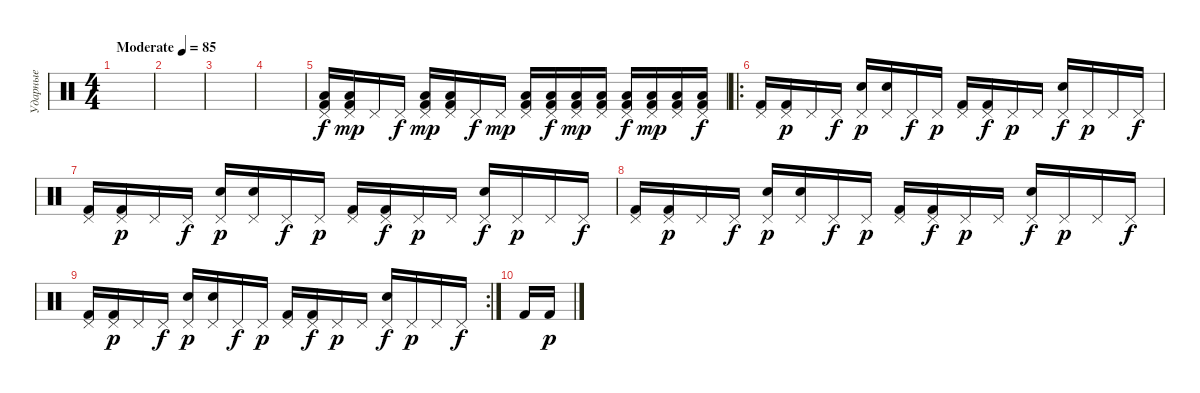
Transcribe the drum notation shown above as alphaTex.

\track ("Ударные" "Ударные") {instrument percussion}
\staff {score}
\articulation defaults
\ts (4 4)
\tempo (85 "Moderate")
\clef neutral
\ks c
|
|
|
|
("Pedal Hi-Hat (hit)" "Kick (hit) 2" "Low Floor Tom (hit)").16 ("Pedal Hi-Hat (hit)" "Kick (hit) 2" "Low Floor Tom (hit)").16{dy mp} "Pedal Hi-Hat (hit)".16 "Pedal Hi-Hat (hit)".16{dy f} ("Pedal Hi-Hat (hit)" "Kick (hit) 2" "Low Floor Tom (hit)").16{dy mp} ("Pedal Hi-Hat (hit)" "Kick (hit) 2" "Low Floor Tom (hit)").16 "Pedal Hi-Hat (hit)".16{dy f} "Pedal Hi-Hat (hit)".16{dy mp} ("Pedal Hi-Hat (hit)" "Kick (hit) 2" "Low Floor Tom (hit)").16 ("Pedal Hi-Hat (hit)" "Kick (hit) 2" "Low Floor Tom (hit)").16{dy f} ("Pedal Hi-Hat (hit)" "Kick (hit) 2" "Low Floor Tom (hit)").16{dy mp} ("Pedal Hi-Hat (hit)" "Kick (hit) 2" "Low Floor Tom (hit)").16 ("Pedal Hi-Hat (hit)" "Kick (hit) 2" "Low Floor Tom (hit)").16{dy f} ("Pedal Hi-Hat (hit)" "Kick (hit) 2" "Low Floor Tom (hit)").16{dy mp} ("Pedal Hi-Hat (hit)" "Kick (hit) 2" "Low Floor Tom (hit)").16 ("Pedal Hi-Hat (hit)" "Kick (hit) 2" "Low Floor Tom (hit)").16{dy f} |
\ro
("Pedal Hi-Hat (hit)" "Kick (hit) 2").16 ("Pedal Hi-Hat (hit)" "Kick (hit) 2").16{dy p} "Pedal Hi-Hat (hit)".16 "Pedal Hi-Hat (hit)".16{dy f} ("Pedal Hi-Hat (hit)" "Electric Snare (hit)").16{dy p} ("Pedal Hi-Hat (hit)" "Electric Snare (hit)").16 "Pedal Hi-Hat (hit)".16{dy f} "Pedal Hi-Hat (hit)".16{dy p} ("Pedal Hi-Hat (hit)" "Kick (hit) 2").16 ("Pedal Hi-Hat (hit)" "Kick (hit) 2").16{dy f} "Pedal Hi-Hat (hit)".16{dy p} "Pedal Hi-Hat (hit)".16 ("Pedal Hi-Hat (hit)" "Electric Snare (hit)").16{dy f} "Pedal Hi-Hat (hit)".16{dy p} "Pedal Hi-Hat (hit)".16 "Pedal Hi-Hat (hit)".16{dy f} |
("Pedal Hi-Hat (hit)" "Kick (hit) 2").16 ("Pedal Hi-Hat (hit)" "Kick (hit) 2").16{dy p} "Pedal Hi-Hat (hit)".16 "Pedal Hi-Hat (hit)".16{dy f} ("Pedal Hi-Hat (hit)" "Electric Snare (hit)").16{dy p} ("Pedal Hi-Hat (hit)" "Electric Snare (hit)").16 "Pedal Hi-Hat (hit)".16{dy f} "Pedal Hi-Hat (hit)".16{dy p} ("Pedal Hi-Hat (hit)" "Kick (hit) 2").16 ("Pedal Hi-Hat (hit)" "Kick (hit) 2").16{dy f} "Pedal Hi-Hat (hit)".16{dy p} "Pedal Hi-Hat (hit)".16 ("Pedal Hi-Hat (hit)" "Electric Snare (hit)").16{dy f} "Pedal Hi-Hat (hit)".16{dy p} "Pedal Hi-Hat (hit)".16 "Pedal Hi-Hat (hit)".16{dy f} |
("Pedal Hi-Hat (hit)" "Kick (hit) 2").16 ("Pedal Hi-Hat (hit)" "Kick (hit) 2").16{dy p} "Pedal Hi-Hat (hit)".16 "Pedal Hi-Hat (hit)".16{dy f} ("Pedal Hi-Hat (hit)" "Electric Snare (hit)").16{dy p} ("Pedal Hi-Hat (hit)" "Electric Snare (hit)").16 "Pedal Hi-Hat (hit)".16{dy f} "Pedal Hi-Hat (hit)".16{dy p} ("Pedal Hi-Hat (hit)" "Kick (hit) 2").16 ("Pedal Hi-Hat (hit)" "Kick (hit) 2").16{dy f} "Pedal Hi-Hat (hit)".16{dy p} "Pedal Hi-Hat (hit)".16 ("Pedal Hi-Hat (hit)" "Electric Snare (hit)").16{dy f} "Pedal Hi-Hat (hit)".16{dy p} "Pedal Hi-Hat (hit)".16 "Pedal Hi-Hat (hit)".16{dy f} |
\rc 2
("Pedal Hi-Hat (hit)" "Kick (hit) 2").16 ("Pedal Hi-Hat (hit)" "Kick (hit) 2").16{dy p} "Pedal Hi-Hat (hit)".16 "Pedal Hi-Hat (hit)".16{dy f} ("Pedal Hi-Hat (hit)" "Electric Snare (hit)").16{dy p} ("Pedal Hi-Hat (hit)" "Electric Snare (hit)").16 "Pedal Hi-Hat (hit)".16{dy f} "Pedal Hi-Hat (hit)".16{dy p} ("Pedal Hi-Hat (hit)" "Kick (hit) 2").16 ("Pedal Hi-Hat (hit)" "Kick (hit) 2").16{dy f} "Pedal Hi-Hat (hit)".16{dy p} "Pedal Hi-Hat (hit)".16 ("Pedal Hi-Hat (hit)" "Electric Snare (hit)").16{dy f} "Pedal Hi-Hat (hit)".16{dy p} "Pedal Hi-Hat (hit)".16 "Pedal Hi-Hat (hit)".16{dy f} |
"Kick (hit) 2".16 "Kick (hit) 2".16{dy p}
